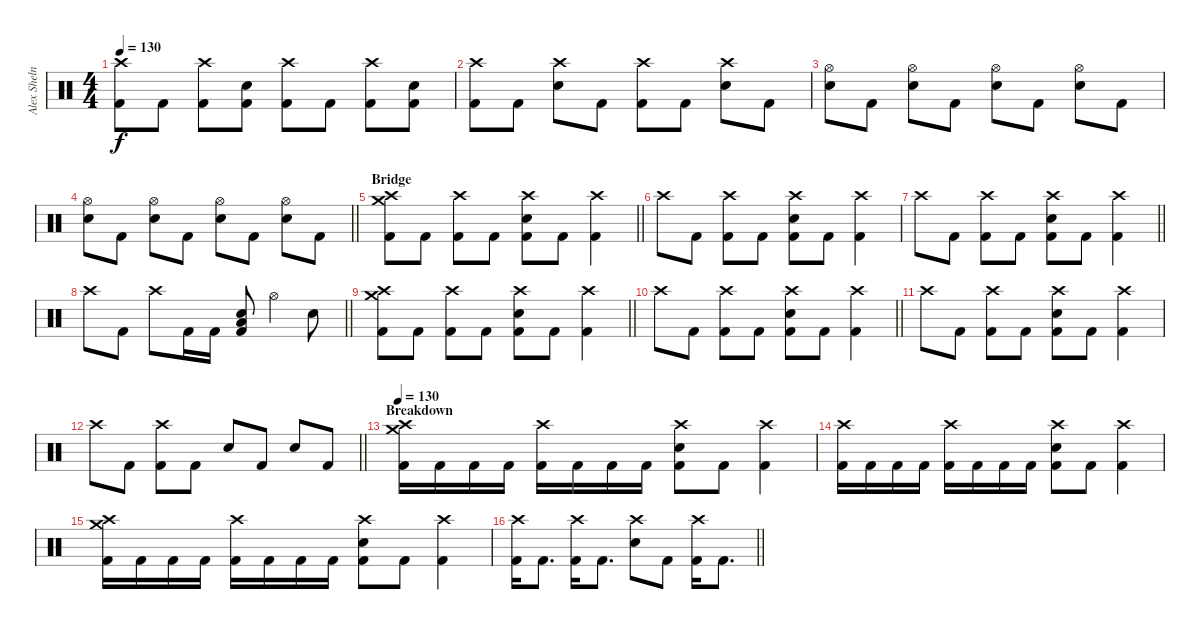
\track ("Alex Shelnutt [Drums]" "Alex Sheln") {instrument percussion}
\staff {score}
\articulation defaults
\ts (4 4)
\tempo 130
\clef neutral
\ks c
("Crash high (hit)" "Kick (hit) 2").8{dy f} "Kick (hit) 2".8 ("Crash high (hit)" "Kick (hit) 2").8 ("Electric Snare (hit)" "Kick (hit) 2").8 ("Crash high (hit)" "Kick (hit) 2").8 "Kick (hit) 2".8 ("Crash high (hit)" "Kick (hit) 2").8 ("Electric Snare (hit)" "Kick (hit) 2").8 |
("Crash high (hit)" "Kick (hit) 2").8 "Kick (hit) 2".8 ("Crash high (hit)" "Electric Snare (hit)").8 "Kick (hit) 2".8 ("Crash high (hit)" "Kick (hit) 2").8 "Kick (hit) 2".8 ("Crash high (hit)" "Electric Snare (hit)").8 "Kick (hit) 2".8 |
("Hi-Hat (open)" "Electric Snare (hit)").8 "Kick (hit) 2".8 ("Hi-Hat (open)" "Electric Snare (hit)").8 "Kick (hit) 2".8 ("Hi-Hat (open)" "Electric Snare (hit)").8 "Kick (hit) 2".8 ("Hi-Hat (open)" "Electric Snare (hit)").8 "Kick (hit) 2".8 |
\barLineRight lightlight
("Hi-Hat (open)" "Electric Snare (hit)").8 "Kick (hit) 2".8 ("Hi-Hat (open)" "Electric Snare (hit)").8 "Kick (hit) 2".8 ("Hi-Hat (open)" "Electric Snare (hit)").8 "Kick (hit) 2".8 ("Hi-Hat (open)" "Electric Snare (hit)").8 "Kick (hit) 2".8 |
\section ("" "Bridge")
\barLineRight lightlight
("Crash high (hit)" "Crash medium (hit)" "Kick (hit) 2").8 "Kick (hit) 2".8 ("Crash high (hit)" "Kick (hit) 2").8 "Kick (hit) 2".8 ("Crash high (hit)" "Electric Snare (hit)" "Kick (hit) 2").8 "Kick (hit) 2".8 ("Crash high (hit)" "Kick (hit) 2").4 |
"Crash high (hit)".8 "Kick (hit) 2".8 ("Crash high (hit)" "Kick (hit) 2").8 "Kick (hit) 2".8 ("Crash high (hit)" "Electric Snare (hit)" "Kick (hit) 2").8 "Kick (hit) 2".8 ("Crash high (hit)" "Kick (hit) 2").4 |
\barLineRight lightlight "Crash high (hit)".8 "Kick (hit) 2".8
("Crash high (hit)" "Kick (hit) 2").8 "Kick (hit) 2".8 ("Crash high (hit)" "Electric Snare (hit)" "Kick (hit) 2").8 "Kick (hit) 2".8 ("Crash high (hit)" "Kick (hit) 2").4 |
\barLineRight lightlight "Crash high (hit)".8 "Kick (hit) 2".8 "Crash high (hit)".8 "Kick (hit) 2".16 "Kick (hit) 2".16
("Low Floor Tom (hit)" "Electric Snare (hit)" "Kick (hit) 2").8 "Hi-Hat (open)".4 "Electric Snare (hit)".8 |
\barLineRight lightlight
("Crash high (hit)" "Crash medium (hit)" "Kick (hit) 2").8 "Kick (hit) 2".8 ("Crash high (hit)" "Kick (hit) 2").8 "Kick (hit) 2".8 ("Crash high (hit)" "Electric Snare (hit)" "Kick (hit) 2").8 "Kick (hit) 2".8 ("Crash high (hit)" "Kick (hit) 2").4 |
\barLineRight lightlight "Crash high (hit)".8 "Kick (hit) 2".8
("Crash high (hit)" "Kick (hit) 2").8 "Kick (hit) 2".8 ("Crash high (hit)" "Electric Snare (hit)" "Kick (hit) 2").8 "Kick (hit) 2".8 ("Crash high (hit)" "Kick (hit) 2").4 |
"Crash high (hit)".8 "Kick (hit) 2".8 ("Crash high (hit)" "Kick (hit) 2").8 "Kick (hit) 2".8 ("Crash high (hit)" "Electric Snare (hit)" "Kick (hit) 2").8 "Kick (hit) 2".8 ("Crash high (hit)" "Kick (hit) 2").4 |
\barLineRight lightlight "Crash high (hit)".8 "Kick (hit) 2".8
("Crash high (hit)" "Kick (hit) 2").8 "Kick (hit) 2".8 "Electric Snare (hit)".8 "Kick (hit) 2".8 "Electric Snare (hit)".8 "Kick (hit) 2".8 |
\section ("" "Breakdown")
\tempo 130
("Crash high (hit)" "Crash medium (hit)" "Kick (hit) 2").16 "Kick (hit) 2".16 "Kick (hit) 2".16 "Kick (hit) 2".16 ("Crash high (hit)" "Kick (hit) 2").16 "Kick (hit) 2".16 "Kick (hit) 2".16 "Kick (hit) 2".16 ("Crash high (hit)" "Electric Snare (hit)" "Kick (hit) 2").8 "Kick (hit) 2".8 ("Crash high (hit)" "Kick (hit) 2").4 |
("Crash high (hit)" "Kick (hit) 2").16 "Kick (hit) 2".16 "Kick (hit) 2".16 "Kick (hit) 2".16 ("Crash high (hit)" "Kick (hit) 2").16 "Kick (hit) 2".16 "Kick (hit) 2".16 "Kick (hit) 2".16 ("Crash high (hit)" "Electric Snare (hit)" "Kick (hit) 2").8 "Kick (hit) 2".8 ("Crash high (hit)" "Kick (hit) 2").4 |
("Crash high (hit)" "Crash medium (hit)" "Kick (hit) 2").16 "Kick (hit) 2".16 "Kick (hit) 2".16 "Kick (hit) 2".16 ("Crash high (hit)" "Kick (hit) 2").16 "Kick (hit) 2".16 "Kick (hit) 2".16 "Kick (hit) 2".16 ("Crash high (hit)" "Electric Snare (hit)" "Kick (hit) 2").8 "Kick (hit) 2".8 ("Crash high (hit)" "Kick (hit) 2").4 |
\barLineRight lightlight
("Crash high (hit)" "Kick (hit) 2").16 "Kick (hit) 2".8{d} ("Crash high (hit)" "Kick (hit) 2").16 "Kick (hit) 2".8{d} ("Crash high (hit)" "Electric Snare (hit)").8 "Kick (hit) 2".8 ("Crash high (hit)" "Kick (hit) 2").16 "Kick (hit) 2".8{d}
